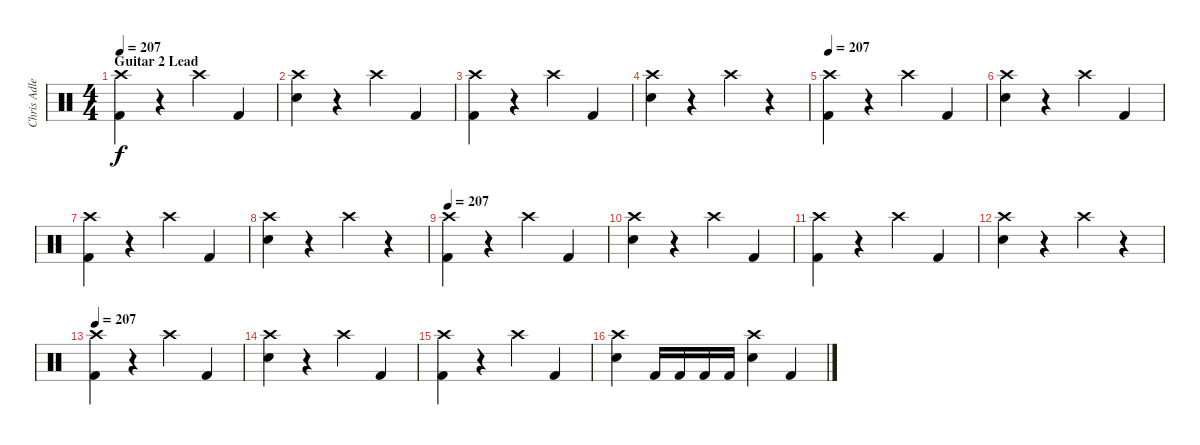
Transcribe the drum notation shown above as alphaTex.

\track ("Chris Adler" "Chris Adle") {instrument percussion}
\staff {score}
\articulation defaults
\ts (4 4)
\section ("" "Guitar 2 Lead")
\tempo 207
\clef neutral
\ks c
("Crash high (hit)" "Kick (hit) 2").4{dy f} r.4 "Crash high (hit)".4 "Kick (hit) 2".4 |
("Crash high (hit)" "Electric Snare (hit)").4 r.4 "Crash high (hit)".4 "Kick (hit) 2".4 |
("Crash high (hit)" "Kick (hit) 2").4 r.4 "Crash high (hit)".4 "Kick (hit) 2".4 |
("Crash high (hit)" "Electric Snare (hit)").4 r.4 "Crash high (hit)".4 r.4 |
\tempo 207
("Crash high (hit)" "Kick (hit) 2").4 r.4 "Crash high (hit)".4 "Kick (hit) 2".4 |
("Crash high (hit)" "Electric Snare (hit)").4 r.4 "Crash high (hit)".4 "Kick (hit) 2".4 |
("Crash high (hit)" "Kick (hit) 2").4 r.4 "Crash high (hit)".4 "Kick (hit) 2".4 |
("Crash high (hit)" "Electric Snare (hit)").4 r.4 "Crash high (hit)".4 r.4 |
\tempo 207
("Crash high (hit)" "Kick (hit) 2").4 r.4 "Crash high (hit)".4 "Kick (hit) 2".4 |
("Crash high (hit)" "Electric Snare (hit)").4 r.4 "Crash high (hit)".4 "Kick (hit) 2".4 |
("Crash high (hit)" "Kick (hit) 2").4 r.4 "Crash high (hit)".4 "Kick (hit) 2".4 |
("Crash high (hit)" "Electric Snare (hit)").4 r.4 "Crash high (hit)".4 r.4 |
\tempo 207
("Crash high (hit)" "Kick (hit) 2").4 r.4 "Crash high (hit)".4 "Kick (hit) 2".4 |
("Crash high (hit)" "Electric Snare (hit)").4 r.4 "Crash high (hit)".4 "Kick (hit) 2".4 |
("Crash high (hit)" "Kick (hit) 2").4 r.4 "Crash high (hit)".4 "Kick (hit) 2".4 |
("Crash high (hit)" "Electric Snare (hit)").4 "Kick (hit) 2".16 "Kick (hit) 2".16 "Kick (hit) 2".16 "Kick (hit) 2".16 ("Crash high (hit)" "Electric Snare (hit)").4 "Kick (hit) 2".4
